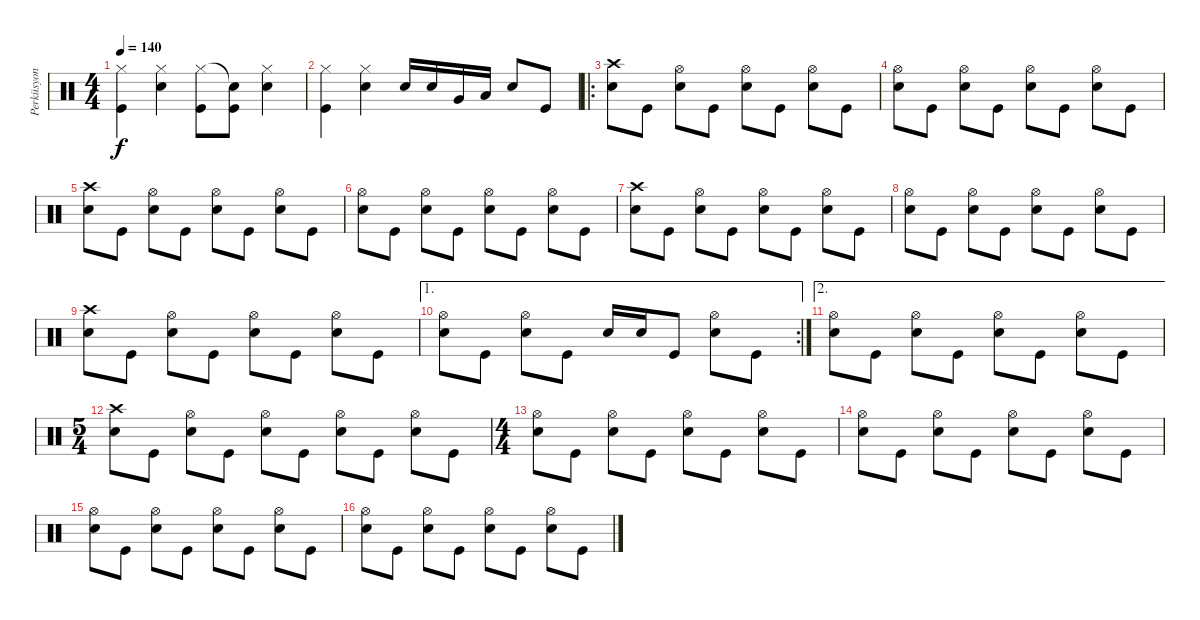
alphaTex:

\track ("Perküsyon" "Perküsyon") {instrument percussion}
\staff {score}
\articulation defaults
\ts (4 4)
\tempo 140
\clef neutral
\ks c
("Kick (hit)" "Hi-Hat (closed)").4{dy f} ("Electric Snare (hit)" "Hi-Hat (closed)").4 ("Kick (hit)" "Hi-Hat (closed)").8 ("Kick (hit)" "Snare (hit)"{t}).8 ("Electric Snare (hit)" "Hi-Hat (closed)").4 |
("Kick (hit)" "Hi-Hat (closed)").4 ("Electric Snare (hit)" "Hi-Hat (closed)").4 "Electric Snare (hit)".16 "Electric Snare (hit)".16 "Very Low Tom (hit)".16 "Low Floor Tom (hit)".16 "Electric Snare (hit)".8 "Kick (hit)".8 |
\ro
("Electric Snare (hit)" "Crash high (hit)").8 "Kick (hit)".8 ("Electric Snare (hit)" "Hi-Hat (open)").8 "Kick (hit)".8 ("Electric Snare (hit)" "Hi-Hat (open)").8 "Kick (hit)".8 ("Electric Snare (hit)" "Hi-Hat (open)").8 "Kick (hit)".8 |
("Electric Snare (hit)" "Hi-Hat (open)").8 "Kick (hit)".8 ("Electric Snare (hit)" "Hi-Hat (open)").8 "Kick (hit)".8 ("Electric Snare (hit)" "Hi-Hat (open)").8 "Kick (hit)".8 ("Electric Snare (hit)" "Hi-Hat (open)").8 "Kick (hit)".8 |
("Electric Snare (hit)" "Crash high (hit)").8 "Kick (hit)".8 ("Electric Snare (hit)" "Hi-Hat (open)").8 "Kick (hit)".8 ("Electric Snare (hit)" "Hi-Hat (open)").8 "Kick (hit)".8 ("Electric Snare (hit)" "Hi-Hat (open)").8 "Kick (hit)".8 |
("Electric Snare (hit)" "Hi-Hat (open)").8 "Kick (hit)".8 ("Electric Snare (hit)" "Hi-Hat (open)").8 "Kick (hit)".8 ("Electric Snare (hit)" "Hi-Hat (open)").8 "Kick (hit)".8 ("Electric Snare (hit)" "Hi-Hat (open)").8 "Kick (hit)".8 |
("Electric Snare (hit)" "Crash high (hit)").8 "Kick (hit)".8 ("Electric Snare (hit)" "Hi-Hat (open)").8 "Kick (hit)".8 ("Electric Snare (hit)" "Hi-Hat (open)").8 "Kick (hit)".8 ("Electric Snare (hit)" "Hi-Hat (open)").8 "Kick (hit)".8 |
("Electric Snare (hit)" "Hi-Hat (open)").8 "Kick (hit)".8 ("Electric Snare (hit)" "Hi-Hat (open)").8 "Kick (hit)".8 ("Electric Snare (hit)" "Hi-Hat (open)").8 "Kick (hit)".8 ("Electric Snare (hit)" "Hi-Hat (open)").8 "Kick (hit)".8 |
("Electric Snare (hit)" "Crash high (hit)").8 "Kick (hit)".8 ("Electric Snare (hit)" "Hi-Hat (open)").8 "Kick (hit)".8 ("Electric Snare (hit)" "Hi-Hat (open)").8 "Kick (hit)".8 ("Electric Snare (hit)" "Hi-Hat (open)").8 "Kick (hit)".8 |
\ae 1
\rc 2
("Electric Snare (hit)" "Hi-Hat (open)").8 "Kick (hit)".8 ("Electric Snare (hit)" "Hi-Hat (open)").8 "Kick (hit)".8 "Electric Snare (hit)".16 "Electric Snare (hit)".16 "Kick (hit)".8 ("Electric Snare (hit)" "Hi-Hat (open)").8 "Kick (hit)".8 |
\ae 2
("Electric Snare (hit)" "Hi-Hat (open)").8 "Kick (hit)".8 ("Electric Snare (hit)" "Hi-Hat (open)").8 "Kick (hit)".8 ("Electric Snare (hit)" "Hi-Hat (open)").8 "Kick (hit)".8 ("Electric Snare (hit)" "Hi-Hat (open)").8 "Kick (hit)".8 |
\ts (5 4)
("Electric Snare (hit)" "Crash high (hit)").8 "Kick (hit)".8 ("Electric Snare (hit)" "Hi-Hat (open)").8 "Kick (hit)".8 ("Electric Snare (hit)" "Hi-Hat (open)").8 "Kick (hit)".8 ("Electric Snare (hit)" "Hi-Hat (open)").8 "Kick (hit)".8 ("Electric Snare (hit)" "Hi-Hat (open)").8 "Kick (hit)".8 |
\ts (4 4)
("Electric Snare (hit)" "Hi-Hat (open)").8 "Kick (hit)".8 ("Electric Snare (hit)" "Hi-Hat (open)").8 "Kick (hit)".8 ("Electric Snare (hit)" "Hi-Hat (open)").8 "Kick (hit)".8 ("Electric Snare (hit)" "Hi-Hat (open)").8 "Kick (hit)".8 |
("Electric Snare (hit)" "Hi-Hat (open)").8 "Kick (hit)".8 ("Electric Snare (hit)" "Hi-Hat (open)").8 "Kick (hit)".8 ("Electric Snare (hit)" "Hi-Hat (open)").8 "Kick (hit)".8 ("Electric Snare (hit)" "Hi-Hat (open)").8 "Kick (hit)".8 |
("Electric Snare (hit)" "Hi-Hat (open)").8 "Kick (hit)".8 ("Electric Snare (hit)" "Hi-Hat (open)").8 "Kick (hit)".8 ("Electric Snare (hit)" "Hi-Hat (open)").8 "Kick (hit)".8 ("Electric Snare (hit)" "Hi-Hat (open)").8 "Kick (hit)".8 |
("Electric Snare (hit)" "Hi-Hat (open)").8 "Kick (hit)".8 ("Electric Snare (hit)" "Hi-Hat (open)").8 "Kick (hit)".8 ("Electric Snare (hit)" "Hi-Hat (open)").8 "Kick (hit)".8 ("Electric Snare (hit)" "Hi-Hat (open)").8 "Kick (hit)".8
